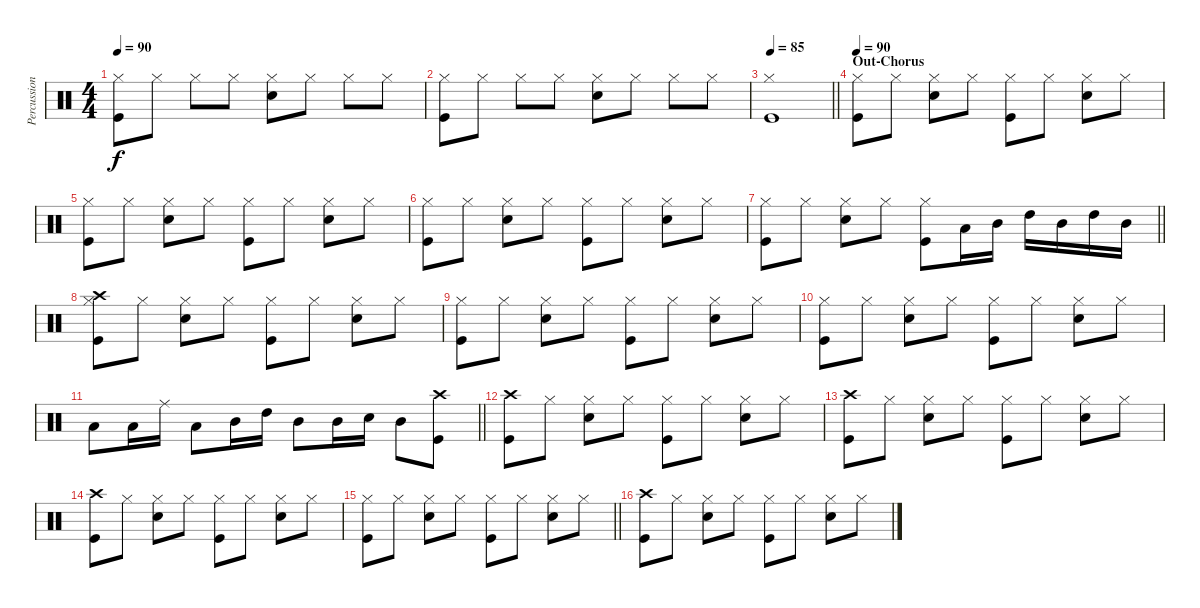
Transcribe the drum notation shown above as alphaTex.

\track ("Percussioni" "Percussion") {instrument percussion}
\staff {score}
\articulation defaults
\ts (4 4)
\tempo 90
\clef neutral
\ks c
("Hi-Hat (closed)" "Kick (hit)").8{dy f} "Hi-Hat (closed)".8 "Hi-Hat (closed)".8 "Hi-Hat (closed)".8 ("Hi-Hat (closed)" "Snare (hit) 2").8 "Hi-Hat (closed)".8 "Hi-Hat (closed)".8 "Hi-Hat (closed)".8 |
("Hi-Hat (closed)" "Kick (hit)").8 "Hi-Hat (closed)".8 "Hi-Hat (closed)".8 "Hi-Hat (closed)".8 ("Hi-Hat (closed)" "Snare (hit) 2").8 "Hi-Hat (closed)".8 "Hi-Hat (closed)".8 "Hi-Hat (closed)".8 |
\tempo 85
\barLineRight lightlight
("Hi-Hat (closed)" "Kick (hit)").1 |
\section ("" "Out-Chorus")
\tempo 90
("Hi-Hat (closed)" "Kick (hit)").8 "Hi-Hat (closed)".8 ("Hi-Hat (closed)" "Snare (hit) 2").8 "Hi-Hat (closed)".8 ("Hi-Hat (closed)" "Kick (hit)").8 "Hi-Hat (closed)".8 ("Hi-Hat (closed)" "Snare (hit) 2").8 "Hi-Hat (closed)".8 |
("Hi-Hat (closed)" "Kick (hit)").8 "Hi-Hat (closed)".8 ("Hi-Hat (closed)" "Snare (hit) 2").8 "Hi-Hat (closed)".8 ("Hi-Hat (closed)" "Kick (hit)").8 "Hi-Hat (closed)".8 ("Hi-Hat (closed)" "Snare (hit) 2").8 "Hi-Hat (closed)".8 |
("Hi-Hat (closed)" "Kick (hit)").8 "Hi-Hat (closed)".8 ("Hi-Hat (closed)" "Snare (hit) 2").8 "Hi-Hat (closed)".8 ("Hi-Hat (closed)" "Kick (hit)").8 "Hi-Hat (closed)".8 ("Hi-Hat (closed)" "Snare (hit) 2").8 "Hi-Hat (closed)".8 |
\barLineRight lightlight
("Hi-Hat (closed)" "Kick (hit)").8 "Hi-Hat (closed)".8 ("Hi-Hat (closed)" "Snare (hit) 2").8 "Hi-Hat (closed)".8 ("Hi-Hat (closed)" "Kick (hit)").8 "Low Tom (hit)".16 "Mid Tom (hit)".16 "High Tom (hit)".16 "Mid Tom (hit)".16 "High Tom (hit)".16 "Mid Tom (hit)".16 |
("Crash high (hit)" "Hi-Hat (closed)" "Kick (hit)").8 "Hi-Hat (closed)".8 ("Hi-Hat (closed)" "Snare (hit) 2").8 "Hi-Hat (closed)".8 ("Hi-Hat (closed)" "Kick (hit)").8 "Hi-Hat (closed)".8 ("Hi-Hat (closed)" "Snare (hit) 2").8 "Hi-Hat (closed)".8 |
("Hi-Hat (closed)" "Kick (hit)").8 "Hi-Hat (closed)".8 ("Hi-Hat (closed)" "Snare (hit) 2").8 "Hi-Hat (closed)".8 ("Hi-Hat (closed)" "Kick (hit)").8 "Hi-Hat (closed)".8 ("Hi-Hat (closed)" "Snare (hit) 2").8 "Hi-Hat (closed)".8 |
("Hi-Hat (closed)" "Kick (hit)").8 "Hi-Hat (closed)".8 ("Hi-Hat (closed)" "Snare (hit) 2").8 "Hi-Hat (closed)".8 ("Hi-Hat (closed)" "Kick (hit)").8 "Hi-Hat (closed)".8 ("Hi-Hat (closed)" "Snare (hit) 2").8 "Hi-Hat (closed)".8 |
\barLineRight lightlight "Low Tom (hit)".8 "Low Tom (hit)".16 "Ride (middle)".16 "Low Tom (hit)".8 "Mid Tom (hit)".16 "High Tom (hit)".16 "Mid Tom (hit)".8 "Mid Tom (hit)".16 "Snare (hit) 2".16 "Mid Tom (hit)".8
("Crash high (hit)" "Kick (hit)").8 |
("Crash high (hit)" "Kick (hit)").8 "Hi-Hat (closed)".8 ("Hi-Hat (closed)" "Snare (hit) 2").8 "Hi-Hat (closed)".8 ("Hi-Hat (closed)" "Kick (hit)").8 "Hi-Hat (closed)".8 ("Hi-Hat (closed)" "Snare (hit) 2").8 "Hi-Hat (closed)".8 |
("Crash high (hit)" "Kick (hit)").8 "Hi-Hat (closed)".8 ("Hi-Hat (closed)" "Snare (hit) 2").8 "Hi-Hat (closed)".8 ("Hi-Hat (closed)" "Kick (hit)").8 "Hi-Hat (closed)".8 ("Hi-Hat (closed)" "Snare (hit) 2").8 "Hi-Hat (closed)".8 |
("Crash high (hit)" "Kick (hit)").8 "Hi-Hat (closed)".8 ("Hi-Hat (closed)" "Snare (hit) 2").8 "Hi-Hat (closed)".8 ("Hi-Hat (closed)" "Kick (hit)").8 "Hi-Hat (closed)".8 ("Hi-Hat (closed)" "Snare (hit) 2").8 "Hi-Hat (closed)".8 |
\barLineRight lightlight
("Hi-Hat (closed)" "Kick (hit)").8 "Hi-Hat (closed)".8 ("Hi-Hat (closed)" "Snare (hit) 2").8 "Hi-Hat (closed)".8 ("Hi-Hat (closed)" "Kick (hit)").8 "Hi-Hat (closed)".8 ("Hi-Hat (closed)" "Snare (hit) 2").8 "Hi-Hat (closed)".8 |
("Crash high (hit)" "Kick (hit)").8 "Hi-Hat (closed)".8 ("Hi-Hat (closed)" "Snare (hit) 2").8 "Hi-Hat (closed)".8 ("Hi-Hat (closed)" "Kick (hit)").8 "Hi-Hat (closed)".8 ("Hi-Hat (closed)" "Snare (hit) 2").8 "Hi-Hat (closed)".8
